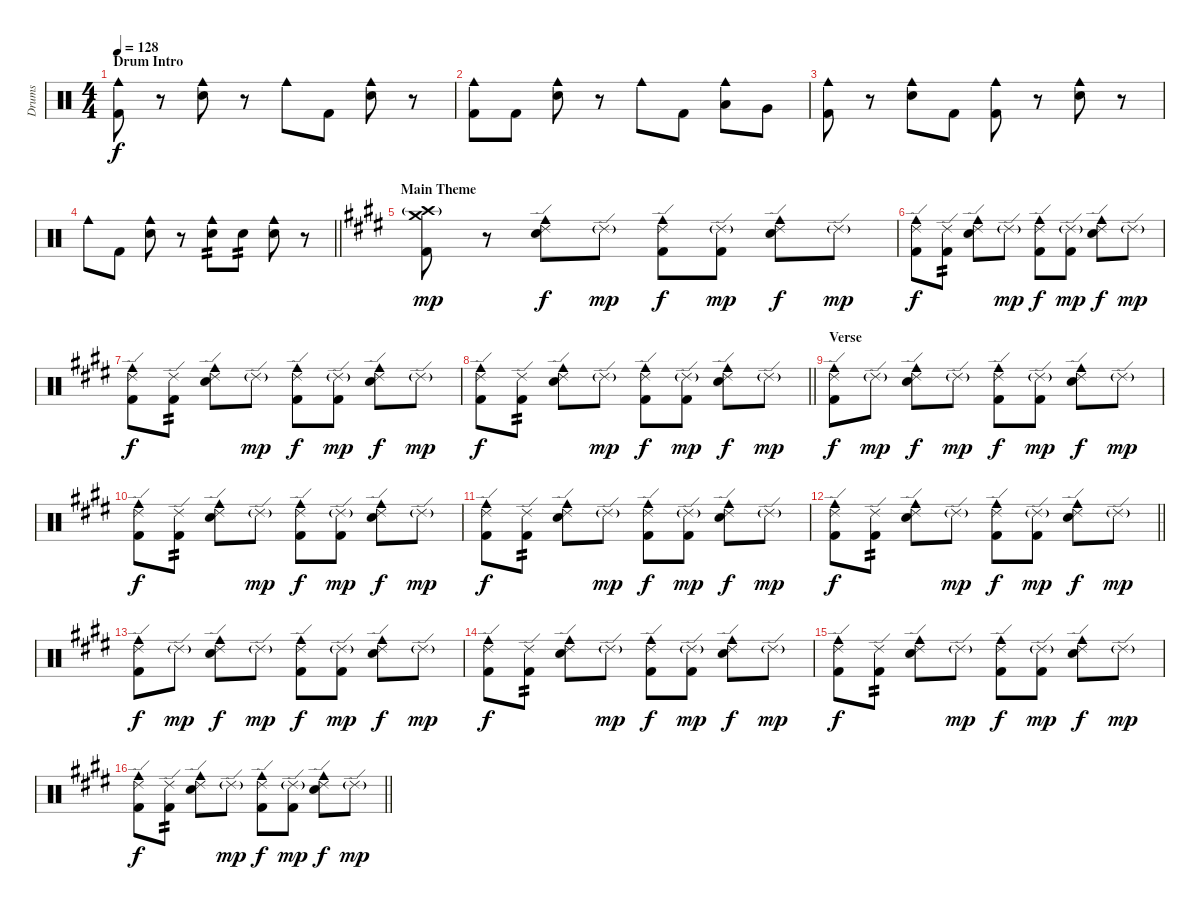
\track ("Drums" "Drums") {instrument percussion}
\staff {score}
\articulation defaults
\ts (4 4)
\section ("" "Drum Intro")
\tempo 128
\clef neutral
\ks c
("Cowbell medium (hit)" "Kick (hit) 2").8{dy f} r.8 ("Cowbell medium (hit)" "Snare (hit) 2").8 r.8 "Cowbell medium (hit)".8 "Kick (hit) 2".8 ("Cowbell medium (hit)" "Snare (hit) 2").8 r.8 |
("Cowbell medium (hit)" "Kick (hit) 2").8 "Kick (hit) 2".8 ("Cowbell medium (hit)" "Snare (hit) 2").8 r.8 "Cowbell medium (hit)".8 "Kick (hit) 2".8 ("Low Tom (hit)" "Cowbell medium (hit)").8 "Very Low Tom (hit)".8 |
("Cowbell medium (hit)" "Kick (hit) 2").8 r.8 ("Cowbell medium (hit)" "Snare (hit) 2").8 "Kick (hit) 2".8 ("Cowbell medium (hit)" "Kick (hit) 2").8 r.8 ("Cowbell medium (hit)" "Snare (hit) 2").8 r.8 |
\barLineRight lightlight "Cowbell medium (hit)".8 "Kick (hit) 2".8
("Cowbell medium (hit)" "Snare (hit) 2").8 r.8 ("Cowbell medium (hit)" "Snare (hit) 2").8{tp 2} "Snare (hit) 2".8{tp 2} ("Cowbell medium (hit)" "Snare (hit) 2").8 r.8 |
\section ("" "Main Theme")
\ks c#minor
("Crash medium (hit)" "Crash high (hit)"{g} "Kick (hit) 2").8{dy mp} r.8 ("Cowbell medium (hit)" "Ride (edge) 2" "Snare (hit) 2").8{dy f} "Ride (edge) 2"{g}.8{dy mp} ("Cowbell medium (hit)" "Ride (edge) 2" "Kick (hit) 2").8{dy f} ("Ride (edge) 2"{g} "Kick (hit) 2").8{dy mp} ("Cowbell medium (hit)" "Ride (edge) 2" "Snare (hit) 2").8{dy f} "Ride (edge) 2"{g}.8{dy mp} |
("Cowbell medium (hit)" "Ride (edge) 2" "Kick (hit) 2").8{dy f} ("Ride (edge) 2" "Kick (hit) 2").8{tp 2} ("Cowbell medium (hit)" "Ride (edge) 2" "Snare (hit) 2").8 "Ride (edge) 2"{g}.8{dy mp} ("Cowbell medium (hit)" "Ride (edge) 2" "Kick (hit) 2").8{dy f} ("Ride (edge) 2"{g} "Kick (hit) 2").8{dy mp} ("Cowbell medium (hit)" "Ride (edge) 2" "Snare (hit) 2").8{dy f} "Ride (edge) 2"{g}.8{dy mp} |
("Cowbell medium (hit)" "Ride (edge) 2" "Kick (hit) 2").8{dy f} ("Ride (edge) 2" "Kick (hit) 2").8{tp 2} ("Cowbell medium (hit)" "Ride (edge) 2" "Snare (hit) 2").8 "Ride (edge) 2"{g}.8{dy mp} ("Cowbell medium (hit)" "Ride (edge) 2" "Kick (hit) 2").8{dy f} ("Ride (edge) 2"{g} "Kick (hit) 2").8{dy mp} ("Cowbell medium (hit)" "Ride (edge) 2" "Snare (hit) 2").8{dy f} "Ride (edge) 2"{g}.8{dy mp} |
\barLineRight lightlight
("Cowbell medium (hit)" "Ride (edge) 2" "Kick (hit) 2").8{dy f} ("Ride (edge) 2" "Kick (hit) 2").8{tp 2} ("Cowbell medium (hit)" "Ride (edge) 2" "Snare (hit) 2").8 "Ride (edge) 2"{g}.8{dy mp} ("Cowbell medium (hit)" "Ride (edge) 2" "Kick (hit) 2").8{dy f} ("Ride (edge) 2"{g} "Kick (hit) 2").8{dy mp} ("Cowbell medium (hit)" "Ride (edge) 2" "Snare (hit) 2").8{dy f} "Ride (edge) 2"{g}.8{dy mp} |
\section ("" "Verse")
("Cowbell medium (hit)" "Ride (edge) 2" "Kick (hit) 2").8{dy f} "Ride (edge) 2"{g}.8{dy mp} ("Cowbell medium (hit)" "Ride (edge) 2" "Snare (hit) 2").8{dy f} "Ride (edge) 2"{g}.8{dy mp} ("Cowbell medium (hit)" "Ride (edge) 2" "Kick (hit) 2").8{dy f} ("Ride (edge) 2"{g} "Kick (hit) 2").8{dy mp} ("Cowbell medium (hit)" "Ride (edge) 2" "Snare (hit) 2").8{dy f} "Ride (edge) 2"{g}.8{dy mp} |
("Cowbell medium (hit)" "Ride (edge) 2" "Kick (hit) 2").8{dy f} ("Ride (edge) 2" "Kick (hit) 2").8{tp 2} ("Cowbell medium (hit)" "Ride (edge) 2" "Snare (hit) 2").8 "Ride (edge) 2"{g}.8{dy mp} ("Cowbell medium (hit)" "Ride (edge) 2" "Kick (hit) 2").8{dy f} ("Ride (edge) 2"{g} "Kick (hit) 2").8{dy mp} ("Cowbell medium (hit)" "Ride (edge) 2" "Snare (hit) 2").8{dy f} "Ride (edge) 2"{g}.8{dy mp} |
("Cowbell medium (hit)" "Ride (edge) 2" "Kick (hit) 2").8{dy f} ("Ride (edge) 2" "Kick (hit) 2").8{tp 2} ("Cowbell medium (hit)" "Ride (edge) 2" "Snare (hit) 2").8 "Ride (edge) 2"{g}.8{dy mp} ("Cowbell medium (hit)" "Ride (edge) 2" "Kick (hit) 2").8{dy f} ("Ride (edge) 2"{g} "Kick (hit) 2").8{dy mp} ("Cowbell medium (hit)" "Ride (edge) 2" "Snare (hit) 2").8{dy f} "Ride (edge) 2"{g}.8{dy mp} |
\barLineRight lightlight
("Cowbell medium (hit)" "Ride (edge) 2" "Kick (hit) 2").8{dy f} ("Ride (edge) 2" "Kick (hit) 2").8{tp 2} ("Cowbell medium (hit)" "Ride (edge) 2" "Snare (hit) 2").8 "Ride (edge) 2"{g}.8{dy mp} ("Cowbell medium (hit)" "Ride (edge) 2" "Kick (hit) 2").8{dy f} ("Ride (edge) 2"{g} "Kick (hit) 2").8{dy mp} ("Cowbell medium (hit)" "Ride (edge) 2" "Snare (hit) 2").8{dy f} "Ride (edge) 2"{g}.8{dy mp} |
("Cowbell medium (hit)" "Ride (edge) 2" "Kick (hit) 2").8{dy f} "Ride (edge) 2"{g}.8{dy mp} ("Cowbell medium (hit)" "Ride (edge) 2" "Snare (hit) 2").8{dy f} "Ride (edge) 2"{g}.8{dy mp} ("Cowbell medium (hit)" "Ride (edge) 2" "Kick (hit) 2").8{dy f} ("Ride (edge) 2"{g} "Kick (hit) 2").8{dy mp} ("Cowbell medium (hit)" "Ride (edge) 2" "Snare (hit) 2").8{dy f} "Ride (edge) 2"{g}.8{dy mp} |
("Cowbell medium (hit)" "Ride (edge) 2" "Kick (hit) 2").8{dy f} ("Ride (edge) 2" "Kick (hit) 2").8{tp 2} ("Cowbell medium (hit)" "Ride (edge) 2" "Snare (hit) 2").8 "Ride (edge) 2"{g}.8{dy mp} ("Cowbell medium (hit)" "Ride (edge) 2" "Kick (hit) 2").8{dy f} ("Ride (edge) 2"{g} "Kick (hit) 2").8{dy mp} ("Cowbell medium (hit)" "Ride (edge) 2" "Snare (hit) 2").8{dy f} "Ride (edge) 2"{g}.8{dy mp} |
("Cowbell medium (hit)" "Ride (edge) 2" "Kick (hit) 2").8{dy f} ("Ride (edge) 2" "Kick (hit) 2").8{tp 2} ("Cowbell medium (hit)" "Ride (edge) 2" "Snare (hit) 2").8 "Ride (edge) 2"{g}.8{dy mp} ("Cowbell medium (hit)" "Ride (edge) 2" "Kick (hit) 2").8{dy f} ("Ride (edge) 2"{g} "Kick (hit) 2").8{dy mp} ("Cowbell medium (hit)" "Ride (edge) 2" "Snare (hit) 2").8{dy f} "Ride (edge) 2"{g}.8{dy mp} |
\barLineRight lightlight
("Cowbell medium (hit)" "Ride (edge) 2" "Kick (hit) 2").8{dy f} ("Ride (edge) 2" "Kick (hit) 2").8{tp 2} ("Cowbell medium (hit)" "Ride (edge) 2" "Snare (hit) 2").8 "Ride (edge) 2"{g}.8{dy mp} ("Cowbell medium (hit)" "Ride (edge) 2" "Kick (hit) 2").8{dy f} ("Ride (edge) 2"{g} "Kick (hit) 2").8{dy mp} ("Cowbell medium (hit)" "Ride (edge) 2" "Snare (hit) 2").8{dy f} "Ride (edge) 2"{g}.8{dy mp}
